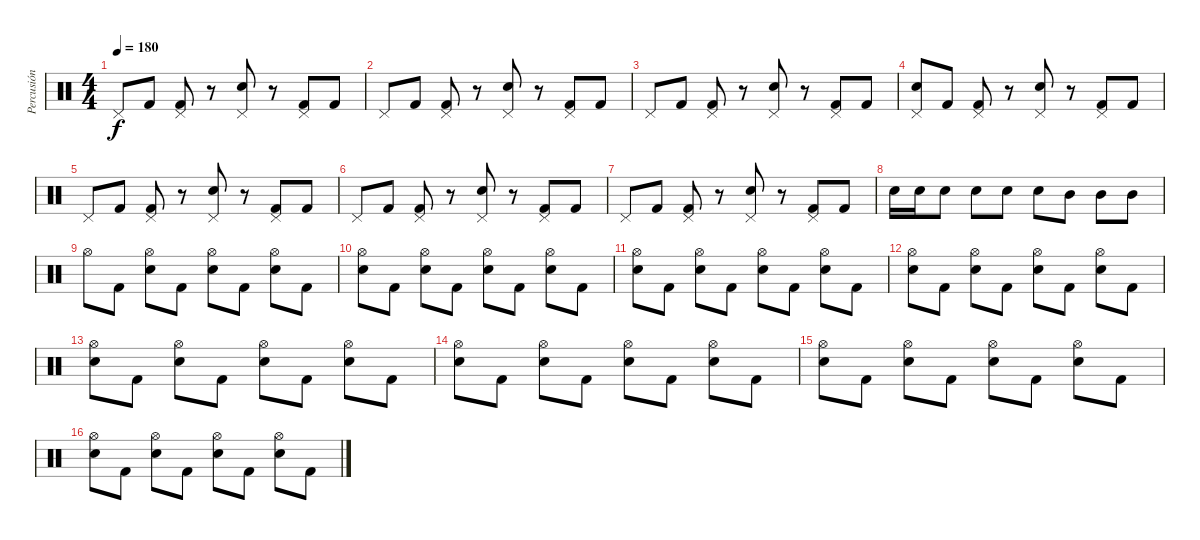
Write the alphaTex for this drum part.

\track ("Percusión" "Percusión") {instrument percussion}
\staff {score}
\articulation defaults
\ts (4 4)
\tempo 180
\clef neutral
\ks c "Pedal Hi-Hat (hit)".8{dy f} "Kick (hit) 2".8
("Pedal Hi-Hat (hit)" "Kick (hit) 2").8 r.8 ("Pedal Hi-Hat (hit)" "Electric Snare (hit)").8 r.8 ("Pedal Hi-Hat (hit)" "Kick (hit) 2").8 "Kick (hit) 2".8 |
"Pedal Hi-Hat (hit)".8 "Kick (hit) 2".8 ("Pedal Hi-Hat (hit)" "Kick (hit) 2").8 r.8 ("Pedal Hi-Hat (hit)" "Electric Snare (hit)").8 r.8 ("Pedal Hi-Hat (hit)" "Kick (hit) 2").8 "Kick (hit) 2".8 |
"Pedal Hi-Hat (hit)".8 "Kick (hit) 2".8 ("Pedal Hi-Hat (hit)" "Kick (hit) 2").8 r.8 ("Pedal Hi-Hat (hit)" "Electric Snare (hit)").8 r.8 ("Pedal Hi-Hat (hit)" "Kick (hit) 2").8 "Kick (hit) 2".8 |
("Pedal Hi-Hat (hit)" "Electric Snare (hit)").8 "Kick (hit) 2".8 ("Pedal Hi-Hat (hit)" "Kick (hit) 2").8 r.8 ("Pedal Hi-Hat (hit)" "Electric Snare (hit)").8 r.8 ("Pedal Hi-Hat (hit)" "Kick (hit) 2").8 "Kick (hit) 2".8 |
"Pedal Hi-Hat (hit)".8 "Kick (hit) 2".8 ("Pedal Hi-Hat (hit)" "Kick (hit) 2").8 r.8 ("Pedal Hi-Hat (hit)" "Electric Snare (hit)").8 r.8 ("Pedal Hi-Hat (hit)" "Kick (hit) 2").8 "Kick (hit) 2".8 |
"Pedal Hi-Hat (hit)".8 "Kick (hit) 2".8 ("Pedal Hi-Hat (hit)" "Kick (hit) 2").8 r.8 ("Pedal Hi-Hat (hit)" "Electric Snare (hit)").8 r.8 ("Pedal Hi-Hat (hit)" "Kick (hit) 2").8 "Kick (hit) 2".8 |
"Pedal Hi-Hat (hit)".8 "Kick (hit) 2".8 ("Pedal Hi-Hat (hit)" "Kick (hit) 2").8 r.8 ("Pedal Hi-Hat (hit)" "Electric Snare (hit)").8 r.8 ("Pedal Hi-Hat (hit)" "Kick (hit) 2").8 "Kick (hit) 2".8 |
"Electric Snare (hit)".16 "Electric Snare (hit)".16 "Electric Snare (hit)".8 "Electric Snare (hit)".8 "Electric Snare (hit)".8 "Electric Snare (hit)".8 "Mid Tom (hit)".8 "Mid Tom (hit)".8 "Mid Tom (hit)".8 |
"Hi-Hat (open)".8 "Kick (hit) 2".8 ("Hi-Hat (open)" "Electric Snare (hit)").8 "Kick (hit) 2".8 ("Hi-Hat (open)" "Electric Snare (hit)").8 "Kick (hit) 2".8 ("Hi-Hat (open)" "Electric Snare (hit)").8 "Kick (hit) 2".8 |
("Hi-Hat (open)" "Electric Snare (hit)").8 "Kick (hit) 2".8 ("Hi-Hat (open)" "Electric Snare (hit)").8 "Kick (hit) 2".8 ("Hi-Hat (open)" "Electric Snare (hit)").8 "Kick (hit) 2".8 ("Hi-Hat (open)" "Electric Snare (hit)").8 "Kick (hit) 2".8 |
("Hi-Hat (open)" "Electric Snare (hit)").8 "Kick (hit) 2".8 ("Hi-Hat (open)" "Electric Snare (hit)").8 "Kick (hit) 2".8 ("Hi-Hat (open)" "Electric Snare (hit)").8 "Kick (hit) 2".8 ("Hi-Hat (open)" "Electric Snare (hit)").8 "Kick (hit) 2".8 |
("Hi-Hat (open)" "Electric Snare (hit)").8 "Kick (hit) 2".8 ("Hi-Hat (open)" "Electric Snare (hit)").8 "Kick (hit) 2".8 ("Hi-Hat (open)" "Electric Snare (hit)").8 "Kick (hit) 2".8 ("Hi-Hat (open)" "Electric Snare (hit)").8 "Kick (hit) 2".8 |
("Hi-Hat (open)" "Electric Snare (hit)").8 "Kick (hit) 2".8 ("Hi-Hat (open)" "Electric Snare (hit)").8 "Kick (hit) 2".8 ("Hi-Hat (open)" "Electric Snare (hit)").8 "Kick (hit) 2".8 ("Hi-Hat (open)" "Electric Snare (hit)").8 "Kick (hit) 2".8 |
("Hi-Hat (open)" "Electric Snare (hit)").8 "Kick (hit) 2".8 ("Hi-Hat (open)" "Electric Snare (hit)").8 "Kick (hit) 2".8 ("Hi-Hat (open)" "Electric Snare (hit)").8 "Kick (hit) 2".8 ("Hi-Hat (open)" "Electric Snare (hit)").8 "Kick (hit) 2".8 |
("Hi-Hat (open)" "Electric Snare (hit)").8 "Kick (hit) 2".8 ("Hi-Hat (open)" "Electric Snare (hit)").8 "Kick (hit) 2".8 ("Hi-Hat (open)" "Electric Snare (hit)").8 "Kick (hit) 2".8 ("Hi-Hat (open)" "Electric Snare (hit)").8 "Kick (hit) 2".8 |
("Hi-Hat (open)" "Electric Snare (hit)").8 "Kick (hit) 2".8 ("Hi-Hat (open)" "Electric Snare (hit)").8 "Kick (hit) 2".8 ("Hi-Hat (open)" "Electric Snare (hit)").8 "Kick (hit) 2".8 ("Hi-Hat (open)" "Electric Snare (hit)").8 "Kick (hit) 2".8
